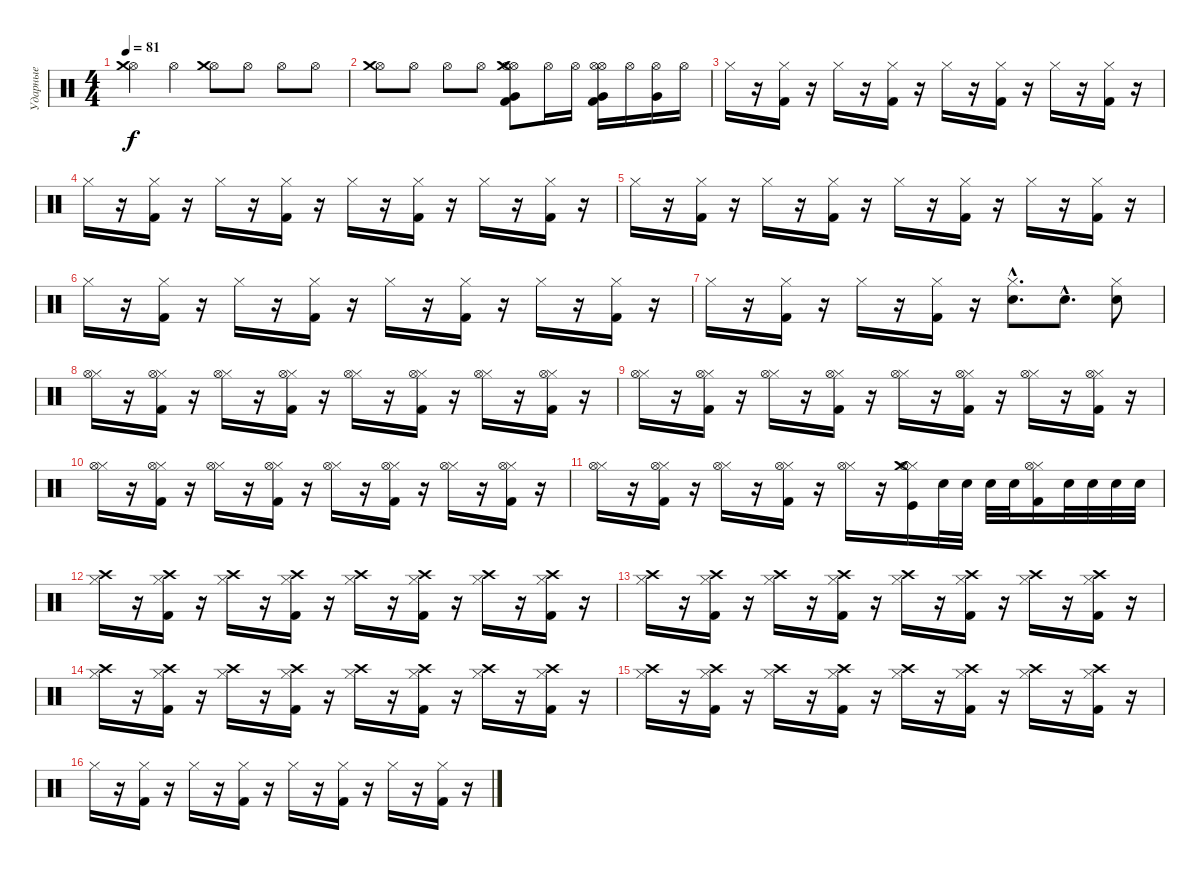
\track ("Ударные" "Ударные") {instrument percussion}
\staff {score}
\articulation defaults
\ts (4 4)
\tempo 81
\clef neutral
\ks c
("Hi-Hat (open)" "Crash medium (hit)").4{dy f} "Hi-Hat (open)".4 ("Hi-Hat (open)" "Crash medium (hit)").8 "Hi-Hat (open)".8 "Hi-Hat (open)".8 "Hi-Hat (open)".8 |
("Hi-Hat (open)" "Crash medium (hit)").8 "Hi-Hat (open)".8 "Hi-Hat (open)".8 "Hi-Hat (open)".8 ("Hi-Hat (open)" "Kick (hit) 2" "Hi-Hat (open)" "Crash medium (hit)" "Very Low Tom (hit)").8 "Hi-Hat (open)".16 "Hi-Hat (open)".16 ("Hi-Hat (open)" "Kick (hit) 2" "Hi-Hat (open)" "Very Low Tom (hit)").16 "Hi-Hat (open)".16 ("Hi-Hat (open)" "Very Low Tom (hit)").16 "Hi-Hat (open)".16 |
"Hi-Hat (closed)".16 r.16 ("Kick (hit) 2" "Hi-Hat (closed)").16 r.16 "Hi-Hat (closed)".16 r.16 ("Kick (hit) 2" "Hi-Hat (closed)").16 r.16 "Hi-Hat (closed)".16 r.16 ("Kick (hit) 2" "Hi-Hat (closed)").16 r.16 "Hi-Hat (closed)".16 r.16 ("Kick (hit) 2" "Hi-Hat (closed)").16 r.16 |
"Hi-Hat (closed)".16 r.16 ("Kick (hit) 2" "Hi-Hat (closed)").16 r.16 "Hi-Hat (closed)".16 r.16 ("Kick (hit) 2" "Hi-Hat (closed)").16 r.16 "Hi-Hat (closed)".16 r.16 ("Kick (hit) 2" "Hi-Hat (closed)").16 r.16 "Hi-Hat (closed)".16 r.16 ("Kick (hit) 2" "Hi-Hat (closed)").16 r.16 |
"Hi-Hat (closed)".16 r.16 ("Kick (hit) 2" "Hi-Hat (closed)").16 r.16 "Hi-Hat (closed)".16 r.16 ("Kick (hit) 2" "Hi-Hat (closed)").16 r.16 "Hi-Hat (closed)".16 r.16 ("Kick (hit) 2" "Hi-Hat (closed)").16 r.16 "Hi-Hat (closed)".16 r.16 ("Kick (hit) 2" "Hi-Hat (closed)").16 r.16 |
"Hi-Hat (closed)".16 r.16 ("Kick (hit) 2" "Hi-Hat (closed)").16 r.16 "Hi-Hat (closed)".16 r.16 ("Kick (hit) 2" "Hi-Hat (closed)").16 r.16 "Hi-Hat (closed)".16 r.16 ("Kick (hit) 2" "Hi-Hat (closed)").16 r.16 "Hi-Hat (closed)".16 r.16 ("Kick (hit) 2" "Hi-Hat (closed)").16 r.16 |
"Hi-Hat (closed)".16 r.16 ("Kick (hit) 2" "Hi-Hat (closed)").16 r.16 "Hi-Hat (closed)".16 r.16 ("Kick (hit) 2" "Hi-Hat (closed)").16 r.16 ("Snare (hit) 2"{hac} "Hi-Hat (closed)"{hac}).8{d} "Snare (hit) 2"{hac}.8{d} ("Snare (hit) 2" "Hi-Hat (closed)").8 |
("Hi-Hat (closed)" "Hi-Hat (open)").16 r.16 ("Hi-Hat (closed)" "Kick (hit) 2" "Hi-Hat (open)").16 r.16 ("Hi-Hat (closed)" "Hi-Hat (open)").16 r.16 ("Hi-Hat (closed)" "Kick (hit) 2" "Hi-Hat (open)").16 r.16 ("Hi-Hat (closed)" "Hi-Hat (open)").16 r.16 ("Hi-Hat (closed)" "Kick (hit) 2" "Hi-Hat (open)").16 r.16 ("Hi-Hat (closed)" "Hi-Hat (open)").16 r.16 ("Hi-Hat (closed)" "Kick (hit) 2" "Hi-Hat (open)").16 r.16 |
("Hi-Hat (closed)" "Hi-Hat (open)").16 r.16 ("Hi-Hat (closed)" "Kick (hit) 2" "Hi-Hat (open)").16 r.16 ("Hi-Hat (closed)" "Hi-Hat (open)").16 r.16 ("Hi-Hat (closed)" "Kick (hit) 2" "Hi-Hat (open)").16 r.16 ("Hi-Hat (closed)" "Hi-Hat (open)").16 r.16 ("Hi-Hat (closed)" "Kick (hit) 2" "Hi-Hat (open)").16 r.16 ("Hi-Hat (closed)" "Hi-Hat (open)").16 r.16 ("Hi-Hat (closed)" "Kick (hit) 2" "Hi-Hat (open)").16 r.16 |
("Hi-Hat (closed)" "Hi-Hat (open)").16 r.16 ("Hi-Hat (closed)" "Kick (hit) 2" "Hi-Hat (open)").16 r.16 ("Hi-Hat (closed)" "Hi-Hat (open)").16 r.16 ("Hi-Hat (closed)" "Kick (hit) 2" "Hi-Hat (open)").16 r.16 ("Hi-Hat (closed)" "Hi-Hat (open)").16 r.16 ("Hi-Hat (closed)" "Kick (hit) 2" "Hi-Hat (open)").16 r.16 ("Hi-Hat (closed)" "Hi-Hat (open)").16 r.16 ("Hi-Hat (closed)" "Kick (hit) 2" "Hi-Hat (open)").16 r.16 |
("Hi-Hat (closed)" "Hi-Hat (open)").16 r.16 ("Hi-Hat (closed)" "Kick (hit) 2" "Hi-Hat (open)").16 r.16 ("Hi-Hat (closed)" "Hi-Hat (open)").16 r.16 ("Hi-Hat (closed)" "Kick (hit) 2" "Hi-Hat (open)").16 r.16 ("Hi-Hat (closed)" "Hi-Hat (open)").16 r.16 ("Hi-Hat (closed)" "Kick (hit)" "Hi-Hat (open)" "Crash medium (hit)").16 "Snare (hit) 2".32 "Snare (hit) 2".32 "Snare (hit) 2".32 "Snare (hit) 2".32 ("Hi-Hat (closed)" "Kick (hit) 2" "Hi-Hat (open)").16 "Snare (hit) 2".32 "Snare (hit) 2".32 "Snare (hit) 2".32 "Snare (hit) 2".32 |
("Hi-Hat (closed)" "Crash high (hit)").16 r.16 ("Hi-Hat (closed)" "Kick (hit) 2" "Crash high (hit)").16 r.16 ("Hi-Hat (closed)" "Crash high (hit)").16 r.16 ("Hi-Hat (closed)" "Kick (hit) 2" "Crash high (hit)").16 r.16 ("Hi-Hat (closed)" "Crash high (hit)").16 r.16 ("Hi-Hat (closed)" "Kick (hit) 2" "Crash high (hit)").16 r.16 ("Hi-Hat (closed)" "Crash high (hit)").16 r.16 ("Hi-Hat (closed)" "Kick (hit) 2" "Crash high (hit)").16 r.16 |
("Hi-Hat (closed)" "Crash high (hit)").16 r.16 ("Hi-Hat (closed)" "Kick (hit) 2" "Crash high (hit)").16 r.16 ("Hi-Hat (closed)" "Crash high (hit)").16 r.16 ("Hi-Hat (closed)" "Kick (hit) 2" "Crash high (hit)").16 r.16 ("Hi-Hat (closed)" "Crash high (hit)").16 r.16 ("Hi-Hat (closed)" "Kick (hit) 2" "Crash high (hit)").16 r.16 ("Hi-Hat (closed)" "Crash high (hit)").16 r.16 ("Hi-Hat (closed)" "Kick (hit) 2" "Crash high (hit)").16 r.16 |
("Hi-Hat (closed)" "Crash high (hit)").16 r.16 ("Hi-Hat (closed)" "Kick (hit) 2" "Crash high (hit)").16 r.16 ("Hi-Hat (closed)" "Crash high (hit)").16 r.16 ("Hi-Hat (closed)" "Kick (hit) 2" "Crash high (hit)").16 r.16 ("Hi-Hat (closed)" "Crash high (hit)").16 r.16 ("Hi-Hat (closed)" "Kick (hit) 2" "Crash high (hit)").16 r.16 ("Hi-Hat (closed)" "Crash high (hit)").16 r.16 ("Hi-Hat (closed)" "Kick (hit) 2" "Crash high (hit)").16 r.16 |
("Hi-Hat (closed)" "Crash high (hit)").16 r.16 ("Hi-Hat (closed)" "Kick (hit) 2" "Crash high (hit)").16 r.16 ("Hi-Hat (closed)" "Crash high (hit)").16 r.16 ("Hi-Hat (closed)" "Kick (hit) 2" "Crash high (hit)").16 r.16 ("Hi-Hat (closed)" "Crash high (hit)").16 r.16 ("Hi-Hat (closed)" "Kick (hit) 2" "Crash high (hit)").16 r.16 ("Hi-Hat (closed)" "Crash high (hit)").16 r.16 ("Hi-Hat (closed)" "Kick (hit) 2" "Crash high (hit)").16 r.16 |
"Hi-Hat (closed)".16 r.16 ("Kick (hit) 2" "Hi-Hat (closed)").16 r.16 "Hi-Hat (closed)".16 r.16 ("Kick (hit) 2" "Hi-Hat (closed)").16 r.16 "Hi-Hat (closed)".16 r.16 ("Kick (hit) 2" "Hi-Hat (closed)").16 r.16 "Hi-Hat (closed)".16 r.16 ("Kick (hit) 2" "Hi-Hat (closed)").16 r.16
